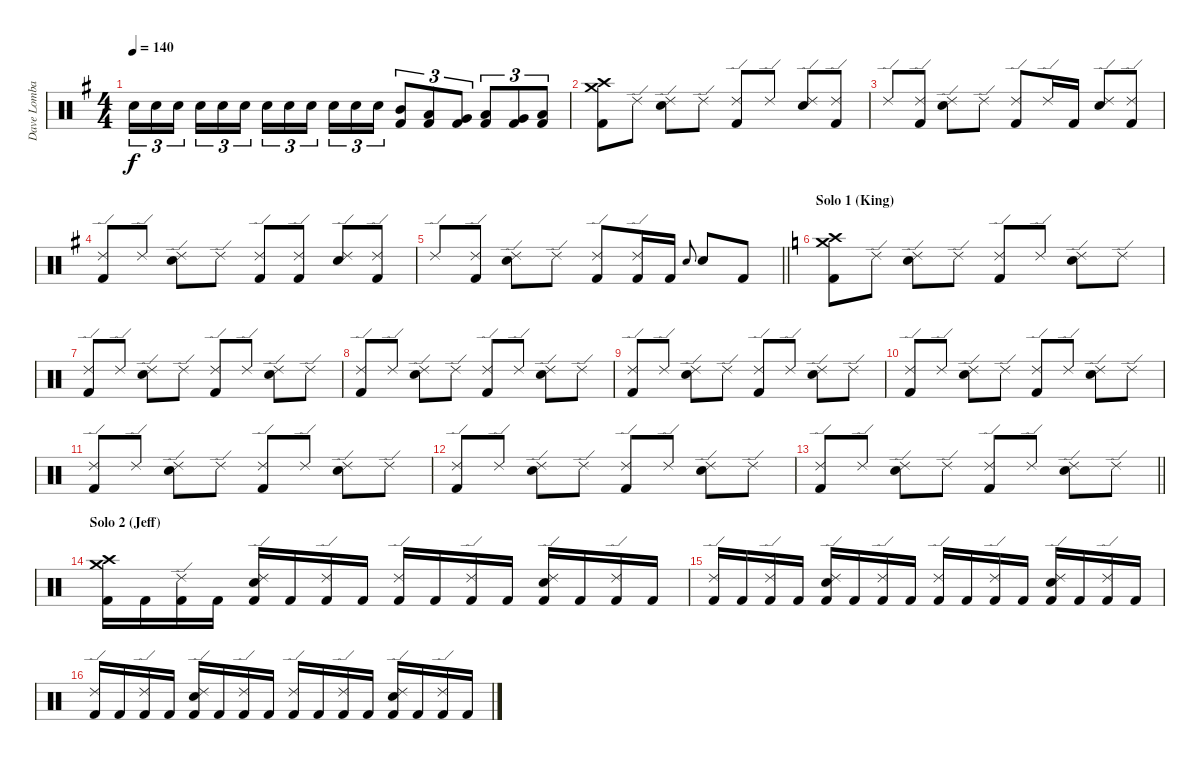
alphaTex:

\track ("Dave Lombardo" "Dave Lomba") {instrument percussion}
\staff {score}
\articulation defaults
\ts (4 4)
\tempo 140
\clef neutral
\ks g "Electric Snare (hit)".16{tu (3 2) dy f} "Electric Snare (hit)".16{tu (3 2)} "Electric Snare (hit)".16{tu (3 2) beam splitsecondary} "Electric Snare (hit)".16{tu (3 2)} "Electric Snare (hit)".16{tu (3 2)} "Electric Snare (hit)".16{tu (3 2)} "Electric Snare (hit)".16{tu (3 2)} "Electric Snare (hit)".16{tu (3 2)} "Electric Snare (hit)".16{tu (3 2) beam splitsecondary} "Electric Snare (hit)".16{tu (3 2)} "Electric Snare (hit)".16{tu (3 2)} "Electric Snare (hit)".16{tu (3 2)}
("Mid Tom (hit)" "Kick (hit) 2").8{tu (3 2)} ("Low Tom (hit)" "Kick (hit) 2").8{tu (3 2)} ("Very Low Tom (hit)" "Kick (hit) 2").8{tu (3 2)} ("Low Tom (hit)" "Kick (hit) 2").8{tu (3 2)} ("Very Low Tom (hit)" "Kick (hit) 2").8{tu (3 2)} ("Low Floor Tom (hit)" "Kick (hit) 2").8{tu (3 2)} |
("Crash high (hit)" "Crash medium (hit)" "Kick (hit) 2").8 "Ride (edge) 2".8 ("Ride (edge) 2" "Electric Snare (hit)").8 "Ride (edge) 2".8 ("Ride (edge) 2" "Kick (hit) 2").8 "Ride (edge) 2".8 ("Ride (edge) 2" "Electric Snare (hit)").8 ("Ride (edge) 2" "Kick (hit) 2").8 |
"Ride (edge) 2".8 ("Ride (edge) 2" "Kick (hit) 2").8 ("Ride (edge) 2" "Electric Snare (hit)").8 "Ride (edge) 2".8 ("Ride (edge) 2" "Kick (hit) 2").8 "Ride (edge) 2".16 "Kick (hit) 2".16 ("Ride (edge) 2" "Electric Snare (hit)").8 ("Ride (edge) 2" "Kick (hit) 2").8 |
("Ride (edge) 2" "Kick (hit) 2").8 "Ride (edge) 2".8 ("Ride (edge) 2" "Electric Snare (hit)").8 "Ride (edge) 2".8 ("Ride (edge) 2" "Kick (hit) 2").8 ("Ride (edge) 2" "Kick (hit) 2").8 ("Ride (edge) 2" "Electric Snare (hit)").8 ("Ride (edge) 2" "Kick (hit) 2").8 |
\barLineRight lightlight "Ride (edge) 2".8
("Ride (edge) 2" "Kick (hit) 2").8 ("Ride (edge) 2" "Electric Snare (hit)").8 "Ride (edge) 2".8 ("Ride (edge) 2" "Kick (hit) 2").8 ("Ride (edge) 2" "Kick (hit) 2").16 "Kick (hit) 2".16 "Electric Snare (hit)".8{gr onbeat} "Electric Snare (hit)".8 "Kick (hit) 2".8 |
\section ("" "Solo 1 (King)")
\ks c
("Crash medium (hit)" "Crash high (hit)" "Kick (hit) 2").8 "Ride (edge) 2".8 ("Ride (edge) 2" "Electric Snare (hit)").8 "Ride (edge) 2".8 ("Ride (edge) 2" "Kick (hit) 2").8 "Ride (edge) 2".8 ("Ride (edge) 2" "Electric Snare (hit)").8 "Ride (edge) 2".8 |
("Ride (edge) 2" "Kick (hit) 2").8 "Ride (edge) 2".8 ("Ride (edge) 2" "Electric Snare (hit)").8 "Ride (edge) 2".8 ("Ride (edge) 2" "Kick (hit) 2").8 "Ride (edge) 2".8 ("Ride (edge) 2" "Electric Snare (hit)").8 "Ride (edge) 2".8 |
("Ride (edge) 2" "Kick (hit) 2").8 "Ride (edge) 2".8 ("Ride (edge) 2" "Electric Snare (hit)").8 "Ride (edge) 2".8 ("Ride (edge) 2" "Kick (hit) 2").8 "Ride (edge) 2".8 ("Ride (edge) 2" "Electric Snare (hit)").8 "Ride (edge) 2".8 |
("Ride (edge) 2" "Kick (hit) 2").8 "Ride (edge) 2".8 ("Ride (edge) 2" "Electric Snare (hit)").8 "Ride (edge) 2".8 ("Ride (edge) 2" "Kick (hit) 2").8 "Ride (edge) 2".8 ("Ride (edge) 2" "Electric Snare (hit)").8 "Ride (edge) 2".8 |
("Ride (edge) 2" "Kick (hit) 2").8 "Ride (edge) 2".8 ("Ride (edge) 2" "Electric Snare (hit)").8 "Ride (edge) 2".8 ("Ride (edge) 2" "Kick (hit) 2").8 "Ride (edge) 2".8 ("Ride (edge) 2" "Electric Snare (hit)").8 "Ride (edge) 2".8 |
("Ride (edge) 2" "Kick (hit) 2").8 "Ride (edge) 2".8 ("Ride (edge) 2" "Electric Snare (hit)").8 "Ride (edge) 2".8 ("Ride (edge) 2" "Kick (hit) 2").8 "Ride (edge) 2".8 ("Ride (edge) 2" "Electric Snare (hit)").8 "Ride (edge) 2".8 |
("Ride (edge) 2" "Kick (hit) 2").8 "Ride (edge) 2".8 ("Ride (edge) 2" "Electric Snare (hit)").8 "Ride (edge) 2".8 ("Ride (edge) 2" "Kick (hit) 2").8 "Ride (edge) 2".8 ("Ride (edge) 2" "Electric Snare (hit)").8 "Ride (edge) 2".8 |
\barLineRight lightlight
("Ride (edge) 2" "Kick (hit) 2").8 "Ride (edge) 2".8 ("Ride (edge) 2" "Electric Snare (hit)").8 "Ride (edge) 2".8 ("Ride (edge) 2" "Kick (hit) 2").8 "Ride (edge) 2".8 ("Ride (edge) 2" "Electric Snare (hit)").8 "Ride (edge) 2".8 |
\section ("" "Solo 2 (Jeff)")
("Crash medium (hit)" "Crash high (hit)" "Kick (hit) 2").16 "Kick (hit) 2".16 ("Ride (edge) 2" "Kick (hit) 2").16 "Kick (hit) 2".16 ("Ride (edge) 2" "Electric Snare (hit)" "Kick (hit) 2").16 "Kick (hit) 2".16 ("Ride (edge) 2" "Kick (hit) 2").16 "Kick (hit) 2".16 ("Ride (edge) 2" "Kick (hit) 2").16 "Kick (hit) 2".16 ("Ride (edge) 2" "Kick (hit) 2").16 "Kick (hit) 2".16 ("Ride (edge) 2" "Electric Snare (hit)" "Kick (hit) 2").16 "Kick (hit) 2".16 ("Ride (edge) 2" "Kick (hit) 2").16 "Kick (hit) 2".16 |
("Ride (edge) 2" "Kick (hit) 2").16 "Kick (hit) 2".16 ("Ride (edge) 2" "Kick (hit) 2").16 "Kick (hit) 2".16 ("Ride (edge) 2" "Electric Snare (hit)" "Kick (hit) 2").16 "Kick (hit) 2".16 ("Ride (edge) 2" "Kick (hit) 2").16 "Kick (hit) 2".16 ("Ride (edge) 2" "Kick (hit) 2").16 "Kick (hit) 2".16 ("Ride (edge) 2" "Kick (hit) 2").16 "Kick (hit) 2".16 ("Ride (edge) 2" "Electric Snare (hit)" "Kick (hit) 2").16 "Kick (hit) 2".16 ("Ride (edge) 2" "Kick (hit) 2").16 "Kick (hit) 2".16 |
("Ride (edge) 2" "Kick (hit) 2").16 "Kick (hit) 2".16 ("Ride (edge) 2" "Kick (hit) 2").16 "Kick (hit) 2".16 ("Ride (edge) 2" "Electric Snare (hit)" "Kick (hit) 2").16 "Kick (hit) 2".16 ("Ride (edge) 2" "Kick (hit) 2").16 "Kick (hit) 2".16 ("Ride (edge) 2" "Kick (hit) 2").16 "Kick (hit) 2".16 ("Ride (edge) 2" "Kick (hit) 2").16 "Kick (hit) 2".16 ("Ride (edge) 2" "Electric Snare (hit)" "Kick (hit) 2").16 "Kick (hit) 2".16 ("Ride (edge) 2" "Kick (hit) 2").16 "Kick (hit) 2".16
